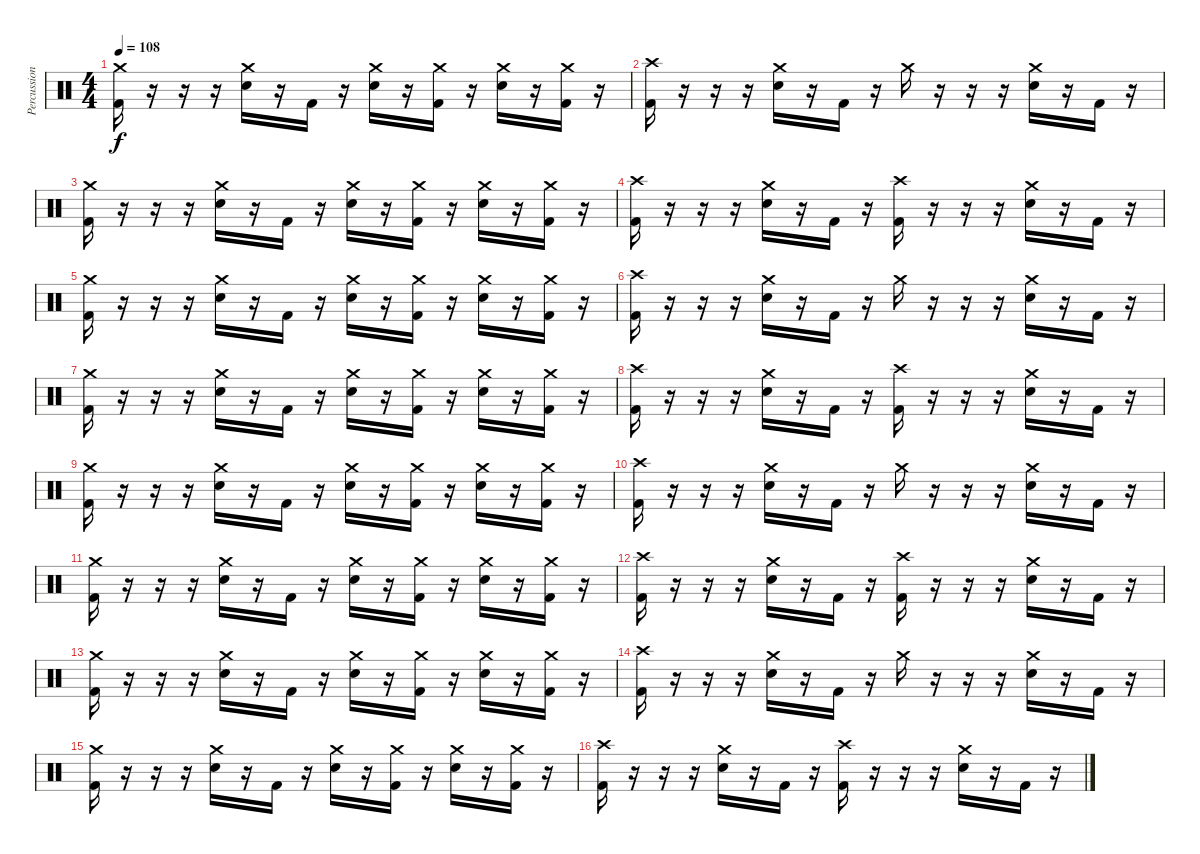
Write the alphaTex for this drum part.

\track ("Percussion" "Percussion") {instrument percussion}
\staff {score}
\articulation defaults
\ts (4 4)
\tempo 108
\clef neutral
\ks c
("Crash medium (hit)" "Kick (hit) 2").16{dy f} r.16 r.16 r.16 ("Crash medium (hit)" "Electric Snare (hit)").16 r.16 "Kick (hit) 2".16 r.16 ("Crash medium (hit)" "Electric Snare (hit)").16 r.16 ("Crash medium (hit)" "Kick (hit) 2").16 r.16 ("Crash medium (hit)" "Electric Snare (hit)").16 r.16 ("Crash medium (hit)" "Kick (hit) 2").16 r.16 |
("Crash high (hit)" "Kick (hit) 2").16 r.16 r.16 r.16 ("Crash medium (hit)" "Electric Snare (hit)").16 r.16 "Kick (hit) 2".16 r.16 "Crash medium (hit)".16 r.16 r.16 r.16 ("Crash medium (hit)" "Electric Snare (hit)").16 r.16 "Kick (hit) 2".16 r.16 |
("Crash medium (hit)" "Kick (hit) 2").16 r.16 r.16 r.16 ("Crash medium (hit)" "Electric Snare (hit)").16 r.16 "Kick (hit) 2".16 r.16 ("Crash medium (hit)" "Electric Snare (hit)").16 r.16 ("Crash medium (hit)" "Kick (hit) 2").16 r.16 ("Crash medium (hit)" "Electric Snare (hit)").16 r.16 ("Crash medium (hit)" "Kick (hit) 2").16 r.16 |
("Crash high (hit)" "Kick (hit) 2").16 r.16 r.16 r.16 ("Crash medium (hit)" "Electric Snare (hit)").16 r.16 "Kick (hit) 2".16 r.16 ("Crash high (hit)" "Kick (hit) 2").16 r.16 r.16 r.16 ("Crash medium (hit)" "Electric Snare (hit)").16 r.16 "Kick (hit) 2".16 r.16 |
("Crash medium (hit)" "Kick (hit) 2").16 r.16 r.16 r.16 ("Crash medium (hit)" "Electric Snare (hit)").16 r.16 "Kick (hit) 2".16 r.16 ("Crash medium (hit)" "Electric Snare (hit)").16 r.16 ("Crash medium (hit)" "Kick (hit) 2").16 r.16 ("Crash medium (hit)" "Electric Snare (hit)").16 r.16 ("Crash medium (hit)" "Kick (hit) 2").16 r.16 |
("Crash high (hit)" "Kick (hit) 2").16 r.16 r.16 r.16 ("Crash medium (hit)" "Electric Snare (hit)").16 r.16 "Kick (hit) 2".16 r.16 "Crash medium (hit)".16 r.16 r.16 r.16 ("Crash medium (hit)" "Electric Snare (hit)").16 r.16 "Kick (hit) 2".16 r.16 |
("Crash medium (hit)" "Kick (hit) 2").16 r.16 r.16 r.16 ("Crash medium (hit)" "Electric Snare (hit)").16 r.16 "Kick (hit) 2".16 r.16 ("Crash medium (hit)" "Electric Snare (hit)").16 r.16 ("Crash medium (hit)" "Kick (hit) 2").16 r.16 ("Crash medium (hit)" "Electric Snare (hit)").16 r.16 ("Crash medium (hit)" "Kick (hit) 2").16 r.16 |
("Crash high (hit)" "Kick (hit) 2").16 r.16 r.16 r.16 ("Crash medium (hit)" "Electric Snare (hit)").16 r.16 "Kick (hit) 2".16 r.16 ("Crash high (hit)" "Kick (hit) 2").16 r.16 r.16 r.16 ("Crash medium (hit)" "Electric Snare (hit)").16 r.16 "Kick (hit) 2".16 r.16 |
("Crash medium (hit)" "Kick (hit) 2").16 r.16 r.16 r.16 ("Crash medium (hit)" "Electric Snare (hit)").16 r.16 "Kick (hit) 2".16 r.16 ("Crash medium (hit)" "Electric Snare (hit)").16 r.16 ("Crash medium (hit)" "Kick (hit) 2").16 r.16 ("Crash medium (hit)" "Electric Snare (hit)").16 r.16 ("Crash medium (hit)" "Kick (hit) 2").16 r.16 |
("Crash high (hit)" "Kick (hit) 2").16 r.16 r.16 r.16 ("Crash medium (hit)" "Electric Snare (hit)").16 r.16 "Kick (hit) 2".16 r.16 "Crash medium (hit)".16 r.16 r.16 r.16 ("Crash medium (hit)" "Electric Snare (hit)").16 r.16 "Kick (hit) 2".16 r.16 |
("Crash medium (hit)" "Kick (hit) 2").16 r.16 r.16 r.16 ("Crash medium (hit)" "Electric Snare (hit)").16 r.16 "Kick (hit) 2".16 r.16 ("Crash medium (hit)" "Electric Snare (hit)").16 r.16 ("Crash medium (hit)" "Kick (hit) 2").16 r.16 ("Crash medium (hit)" "Electric Snare (hit)").16 r.16 ("Crash medium (hit)" "Kick (hit) 2").16 r.16 |
("Crash high (hit)" "Kick (hit) 2").16 r.16 r.16 r.16 ("Crash medium (hit)" "Electric Snare (hit)").16 r.16 "Kick (hit) 2".16 r.16 ("Crash high (hit)" "Kick (hit) 2").16 r.16 r.16 r.16 ("Crash medium (hit)" "Electric Snare (hit)").16 r.16 "Kick (hit) 2".16 r.16 |
("Crash medium (hit)" "Kick (hit) 2").16 r.16 r.16 r.16 ("Crash medium (hit)" "Electric Snare (hit)").16 r.16 "Kick (hit) 2".16 r.16 ("Crash medium (hit)" "Electric Snare (hit)").16 r.16 ("Crash medium (hit)" "Kick (hit) 2").16 r.16 ("Crash medium (hit)" "Electric Snare (hit)").16 r.16 ("Crash medium (hit)" "Kick (hit) 2").16 r.16 |
("Crash high (hit)" "Kick (hit) 2").16 r.16 r.16 r.16 ("Crash medium (hit)" "Electric Snare (hit)").16 r.16 "Kick (hit) 2".16 r.16 "Crash medium (hit)".16 r.16 r.16 r.16 ("Crash medium (hit)" "Electric Snare (hit)").16 r.16 "Kick (hit) 2".16 r.16 |
("Crash medium (hit)" "Kick (hit) 2").16 r.16 r.16 r.16 ("Crash medium (hit)" "Electric Snare (hit)").16 r.16 "Kick (hit) 2".16 r.16 ("Crash medium (hit)" "Electric Snare (hit)").16 r.16 ("Crash medium (hit)" "Kick (hit) 2").16 r.16 ("Crash medium (hit)" "Electric Snare (hit)").16 r.16 ("Crash medium (hit)" "Kick (hit) 2").16 r.16 |
("Crash high (hit)" "Kick (hit) 2").16 r.16 r.16 r.16 ("Crash medium (hit)" "Electric Snare (hit)").16 r.16 "Kick (hit) 2".16 r.16 ("Crash high (hit)" "Kick (hit) 2").16 r.16 r.16 r.16 ("Crash medium (hit)" "Electric Snare (hit)").16 r.16 "Kick (hit) 2".16 r.16
